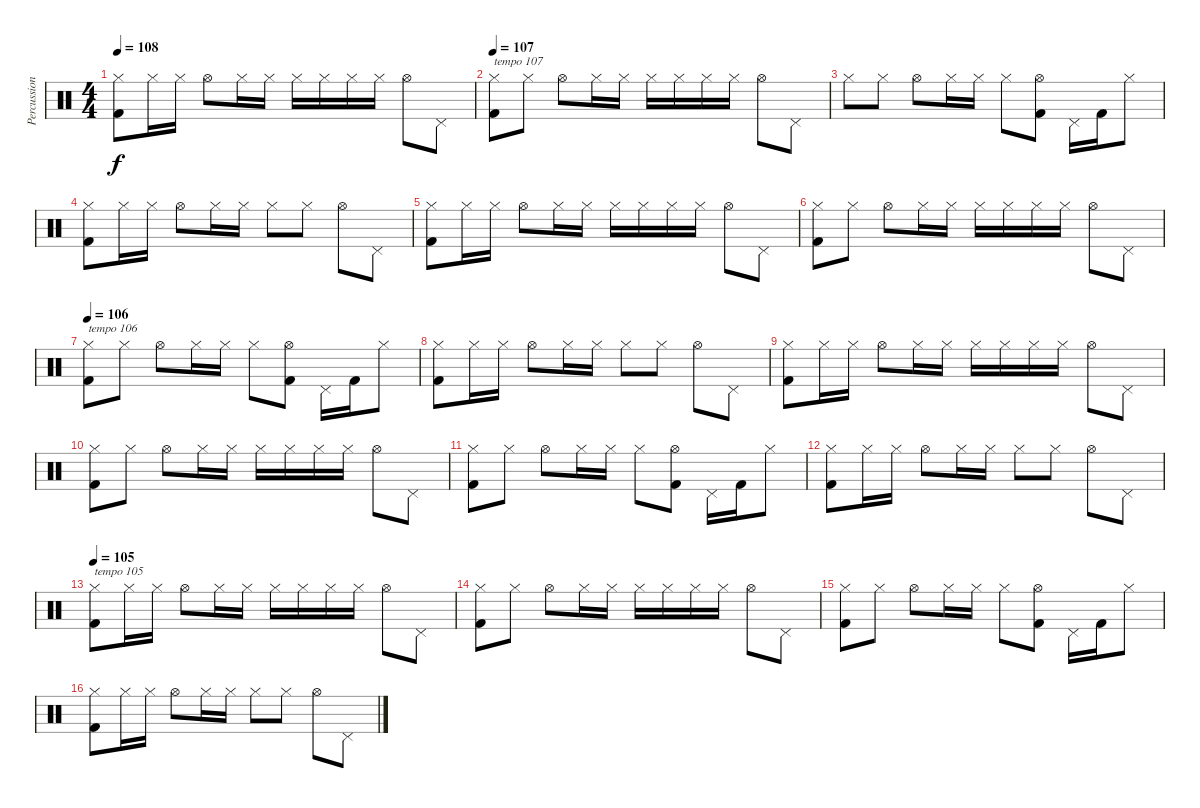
\track ("Percussion" "Percussion") {instrument percussion}
\staff {score}
\articulation defaults
\ts (4 4)
\tempo 108
\clef neutral
\ks c
("Hi-Hat (closed)" "Kick (hit) 2").8{dy f} "Hi-Hat (closed)".16 "Hi-Hat (closed)".16 "Hi-Hat (open)".8 "Hi-Hat (closed)".16 "Hi-Hat (closed)".16 "Hi-Hat (closed)".16 "Hi-Hat (closed)".16 "Hi-Hat (closed)".16 "Hi-Hat (closed)".16 "Hi-Hat (open)".8 "Pedal Hi-Hat (hit)".8 |
\tempo 107
("Hi-Hat (closed)" "Kick (hit) 2").8{txt "tempo 107"} "Hi-Hat (closed)".8 "Hi-Hat (open)".8 "Hi-Hat (closed)".16 "Hi-Hat (closed)".16 "Hi-Hat (closed)".16 "Hi-Hat (closed)".16 "Hi-Hat (closed)".16 "Hi-Hat (closed)".16 "Hi-Hat (open)".8 "Pedal Hi-Hat (hit)".8 |
"Hi-Hat (closed)".8 "Hi-Hat (closed)".8 "Hi-Hat (open)".8 "Hi-Hat (closed)".16 "Hi-Hat (closed)".16 "Hi-Hat (closed)".8 ("Hi-Hat (open)" "Kick (hit) 2").8 "Pedal Hi-Hat (hit)".16 "Kick (hit) 2".16 "Hi-Hat (closed)".8 |
("Hi-Hat (closed)" "Kick (hit) 2").8{volume 7} "Hi-Hat (closed)".16 "Hi-Hat (closed)".16 "Hi-Hat (open)".8 "Hi-Hat (closed)".16 "Hi-Hat (closed)".16 "Hi-Hat (closed)".8 "Hi-Hat (closed)".8 "Hi-Hat (open)".8 "Pedal Hi-Hat (hit)".8 |
("Hi-Hat (closed)" "Kick (hit) 2").8 "Hi-Hat (closed)".16 "Hi-Hat (closed)".16 "Hi-Hat (open)".8 "Hi-Hat (closed)".16 "Hi-Hat (closed)".16 "Hi-Hat (closed)".16 "Hi-Hat (closed)".16 "Hi-Hat (closed)".16 "Hi-Hat (closed)".16 "Hi-Hat (open)".8 "Pedal Hi-Hat (hit)".8 |
("Hi-Hat (closed)" "Kick (hit) 2").8 "Hi-Hat (closed)".8 "Hi-Hat (open)".8 "Hi-Hat (closed)".16 "Hi-Hat (closed)".16 "Hi-Hat (closed)".16 "Hi-Hat (closed)".16 "Hi-Hat (closed)".16 "Hi-Hat (closed)".16 "Hi-Hat (open)".8 "Pedal Hi-Hat (hit)".8 |
\tempo 106
("Hi-Hat (closed)" "Kick (hit) 2").8{txt "tempo 106"} "Hi-Hat (closed)".8 "Hi-Hat (open)".8 "Hi-Hat (closed)".16 "Hi-Hat (closed)".16 "Hi-Hat (closed)".8 ("Hi-Hat (open)" "Kick (hit) 2").8 "Pedal Hi-Hat (hit)".16 "Kick (hit) 2".16 "Hi-Hat (closed)".8 |
("Hi-Hat (closed)" "Kick (hit) 2").8{volume 7} "Hi-Hat (closed)".16 "Hi-Hat (closed)".16 "Hi-Hat (open)".8 "Hi-Hat (closed)".16 "Hi-Hat (closed)".16 "Hi-Hat (closed)".8 "Hi-Hat (closed)".8 "Hi-Hat (open)".8 "Pedal Hi-Hat (hit)".8 |
("Hi-Hat (closed)" "Kick (hit) 2").8 "Hi-Hat (closed)".16 "Hi-Hat (closed)".16 "Hi-Hat (open)".8 "Hi-Hat (closed)".16 "Hi-Hat (closed)".16 "Hi-Hat (closed)".16 "Hi-Hat (closed)".16 "Hi-Hat (closed)".16 "Hi-Hat (closed)".16 "Hi-Hat (open)".8 "Pedal Hi-Hat (hit)".8 |
("Hi-Hat (closed)" "Kick (hit) 2").8 "Hi-Hat (closed)".8 "Hi-Hat (open)".8 "Hi-Hat (closed)".16 "Hi-Hat (closed)".16 "Hi-Hat (closed)".16 "Hi-Hat (closed)".16 "Hi-Hat (closed)".16 "Hi-Hat (closed)".16 "Hi-Hat (open)".8 "Pedal Hi-Hat (hit)".8 |
("Hi-Hat (closed)" "Kick (hit) 2").8 "Hi-Hat (closed)".8 "Hi-Hat (open)".8 "Hi-Hat (closed)".16 "Hi-Hat (closed)".16 "Hi-Hat (closed)".8 ("Hi-Hat (open)" "Kick (hit) 2").8 "Pedal Hi-Hat (hit)".16 "Kick (hit) 2".16 "Hi-Hat (closed)".8 |
("Hi-Hat (closed)" "Kick (hit) 2").8{volume 7} "Hi-Hat (closed)".16 "Hi-Hat (closed)".16 "Hi-Hat (open)".8 "Hi-Hat (closed)".16 "Hi-Hat (closed)".16 "Hi-Hat (closed)".8 "Hi-Hat (closed)".8 "Hi-Hat (open)".8 "Pedal Hi-Hat (hit)".8 |
\tempo 105
("Hi-Hat (closed)" "Kick (hit) 2").8{txt "tempo 105"} "Hi-Hat (closed)".16 "Hi-Hat (closed)".16 "Hi-Hat (open)".8 "Hi-Hat (closed)".16 "Hi-Hat (closed)".16 "Hi-Hat (closed)".16 "Hi-Hat (closed)".16 "Hi-Hat (closed)".16 "Hi-Hat (closed)".16 "Hi-Hat (open)".8 "Pedal Hi-Hat (hit)".8 |
("Hi-Hat (closed)" "Kick (hit) 2").8 "Hi-Hat (closed)".8 "Hi-Hat (open)".8 "Hi-Hat (closed)".16 "Hi-Hat (closed)".16 "Hi-Hat (closed)".16 "Hi-Hat (closed)".16 "Hi-Hat (closed)".16 "Hi-Hat (closed)".16 "Hi-Hat (open)".8 "Pedal Hi-Hat (hit)".8 |
("Hi-Hat (closed)" "Kick (hit) 2").8 "Hi-Hat (closed)".8 "Hi-Hat (open)".8 "Hi-Hat (closed)".16 "Hi-Hat (closed)".16 "Hi-Hat (closed)".8 ("Hi-Hat (open)" "Kick (hit) 2").8 "Pedal Hi-Hat (hit)".16 "Kick (hit) 2".16 "Hi-Hat (closed)".8 |
("Hi-Hat (closed)" "Kick (hit) 2").8{volume 7} "Hi-Hat (closed)".16 "Hi-Hat (closed)".16 "Hi-Hat (open)".8 "Hi-Hat (closed)".16 "Hi-Hat (closed)".16 "Hi-Hat (closed)".8 "Hi-Hat (closed)".8 "Hi-Hat (open)".8 "Pedal Hi-Hat (hit)".8
